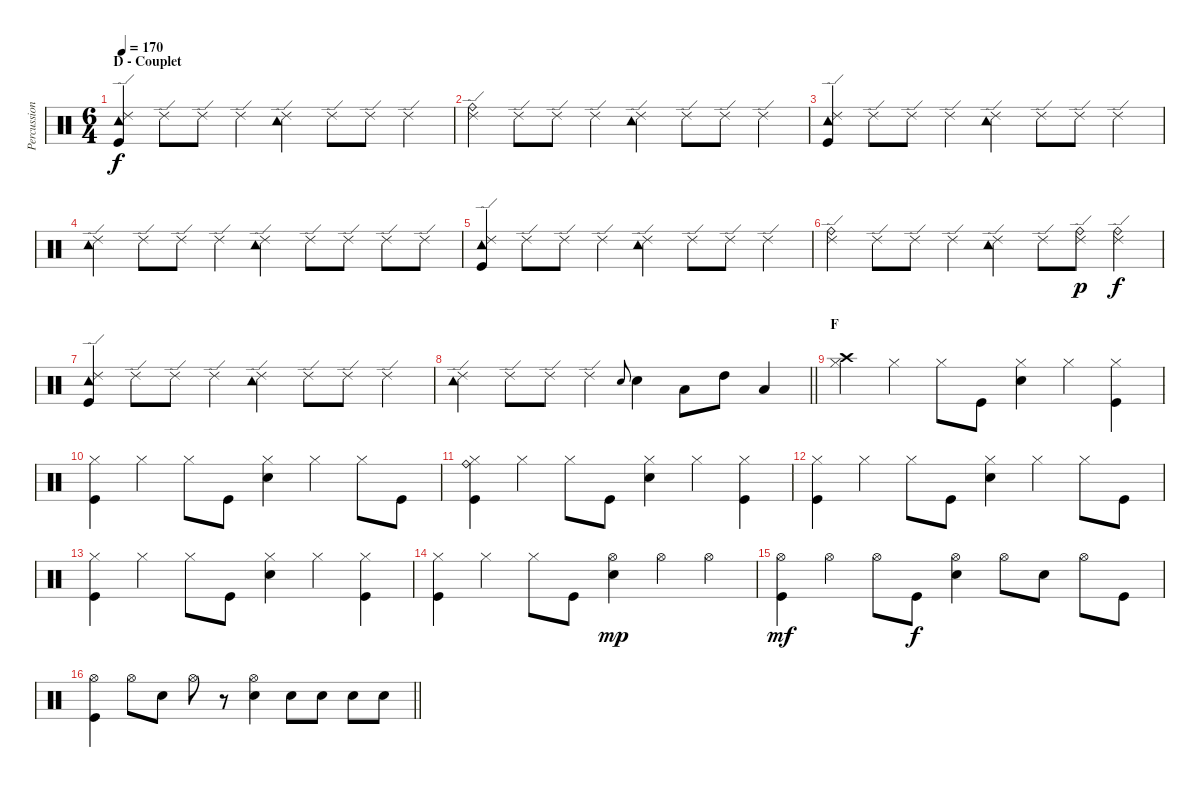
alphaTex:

\track ("Percussions" "Percussion") {instrument percussion}
\staff {score}
\articulation defaults
\ts (6 4)
\section ("" "D - Couplet")
\tempo 170
\clef neutral
\ks c
("Tambourine (hit)" "Ride (edge) 2" "Kick (hit)").4{dy f} "Ride (edge) 2".8 "Ride (edge) 2".8 "Ride (edge) 2".4 ("Tambourine (hit)" "Ride (edge) 2").4 "Ride (edge) 2".8 "Ride (edge) 2".8 "Ride (edge) 2".4 |
("Ride (bell)" "Ride (edge) 2").4 "Ride (edge) 2".8 "Ride (edge) 2".8 "Ride (edge) 2".4 ("Tambourine (hit)" "Ride (edge) 2").4 "Ride (edge) 2".8 "Ride (edge) 2".8 "Ride (edge) 2".4 |
("Tambourine (hit)" "Ride (edge) 2" "Kick (hit)").4 "Ride (edge) 2".8 "Ride (edge) 2".8 "Ride (edge) 2".4 ("Tambourine (hit)" "Ride (edge) 2").4 "Ride (edge) 2".8 "Ride (edge) 2".8 "Ride (edge) 2".4 |
("Tambourine (hit)" "Ride (edge) 2").4 "Ride (edge) 2".8 "Ride (edge) 2".8 "Ride (edge) 2".4 ("Tambourine (hit)" "Ride (edge) 2").4 "Ride (edge) 2".8 "Ride (edge) 2".8 "Ride (edge) 2".8 "Ride (edge) 2".8 |
("Tambourine (hit)" "Ride (edge) 2" "Kick (hit)").4 "Ride (edge) 2".8 "Ride (edge) 2".8 "Ride (edge) 2".4 ("Tambourine (hit)" "Ride (edge) 2").4 "Ride (edge) 2".8 "Ride (edge) 2".8 "Ride (edge) 2".4 |
("Ride (bell)" "Ride (edge) 2").4 "Ride (edge) 2".8 "Ride (edge) 2".8 "Ride (edge) 2".4 ("Tambourine (hit)" "Ride (edge) 2").4 "Ride (edge) 2".8 ("Ride (bell)" "Ride (edge) 2").8{dy p} ("Ride (bell)" "Ride (edge) 2").4{dy f} |
("Tambourine (hit)" "Ride (edge) 2" "Kick (hit)").4 "Ride (edge) 2".8 "Ride (edge) 2".8 "Ride (edge) 2".4 ("Tambourine (hit)" "Ride (edge) 2").4 "Ride (edge) 2".8 "Ride (edge) 2".8 "Ride (edge) 2".4 |
\barLineRight lightlight
("Tambourine (hit)" "Ride (edge) 2").4 "Ride (edge) 2".8 "Ride (edge) 2".8 "Ride (edge) 2".4 "Snare (hit) 2".8{gr onbeat} "Snare (hit) 2".4 "Low Tom (hit)".8 "High Tom (hit)".8 "Low Floor Tom (hit)".4 |
\section ("" "F")
("Crash high (hit)" "Hi-Hat (closed)").4 "Hi-Hat (closed)".4 "Hi-Hat (closed)".8 "Kick (hit)".8 ("Hi-Hat (closed)" "Snare (hit) 2").4 "Hi-Hat (closed)".4 ("Hi-Hat (closed)" "Kick (hit)").4 |
("Hi-Hat (closed)" "Kick (hit)").4 "Hi-Hat (closed)".4 "Hi-Hat (closed)".8 "Kick (hit)".8 ("Hi-Hat (closed)" "Snare (hit) 2").4 "Hi-Hat (closed)".4 "Hi-Hat (closed)".8 "Kick (hit)".8 |
("Ride (bell)" "Hi-Hat (closed)" "Kick (hit)").4 "Hi-Hat (closed)".4 "Hi-Hat (closed)".8 "Kick (hit)".8 ("Hi-Hat (closed)" "Snare (hit) 2").4 "Hi-Hat (closed)".4 ("Hi-Hat (closed)" "Kick (hit)").4 |
("Hi-Hat (closed)" "Kick (hit)").4 "Hi-Hat (closed)".4 "Hi-Hat (closed)".8 "Kick (hit)".8 ("Hi-Hat (closed)" "Snare (hit) 2").4 "Hi-Hat (closed)".4 "Hi-Hat (closed)".8 "Kick (hit)".8 |
("Hi-Hat (closed)" "Kick (hit)").4 "Hi-Hat (closed)".4 "Hi-Hat (closed)".8 "Kick (hit)".8 ("Hi-Hat (closed)" "Snare (hit) 2").4 "Hi-Hat (closed)".4 ("Hi-Hat (closed)" "Kick (hit)").4 |
("Hi-Hat (closed)" "Kick (hit)").4 "Hi-Hat (closed)".4 "Hi-Hat (closed)".8 "Kick (hit)".8 ("Hi-Hat (open)" "Snare (hit) 2").4{dy mp} "Hi-Hat (open)".4 "Hi-Hat (open)".4 |
("Hi-Hat (open)" "Kick (hit)").4{dy mf} "Hi-Hat (open)".4 "Hi-Hat (open)".8 "Kick (hit)".8{dy f} ("Hi-Hat (open)" "Snare (hit) 2").4 "Hi-Hat (open)".8 "Snare (hit) 2".8 "Hi-Hat (open)".8 "Kick (hit)".8 |
\barLineRight lightlight
("Hi-Hat (open)" "Kick (hit)").4 "Hi-Hat (open)".8 "Snare (hit) 2".8 "Hi-Hat (open)".8 r.8 ("Hi-Hat (open)" "Snare (hit) 2").4 "Snare (hit) 2".8 "Snare (hit) 2".8 "Snare (hit) 2".8 "Snare (hit) 2".8
